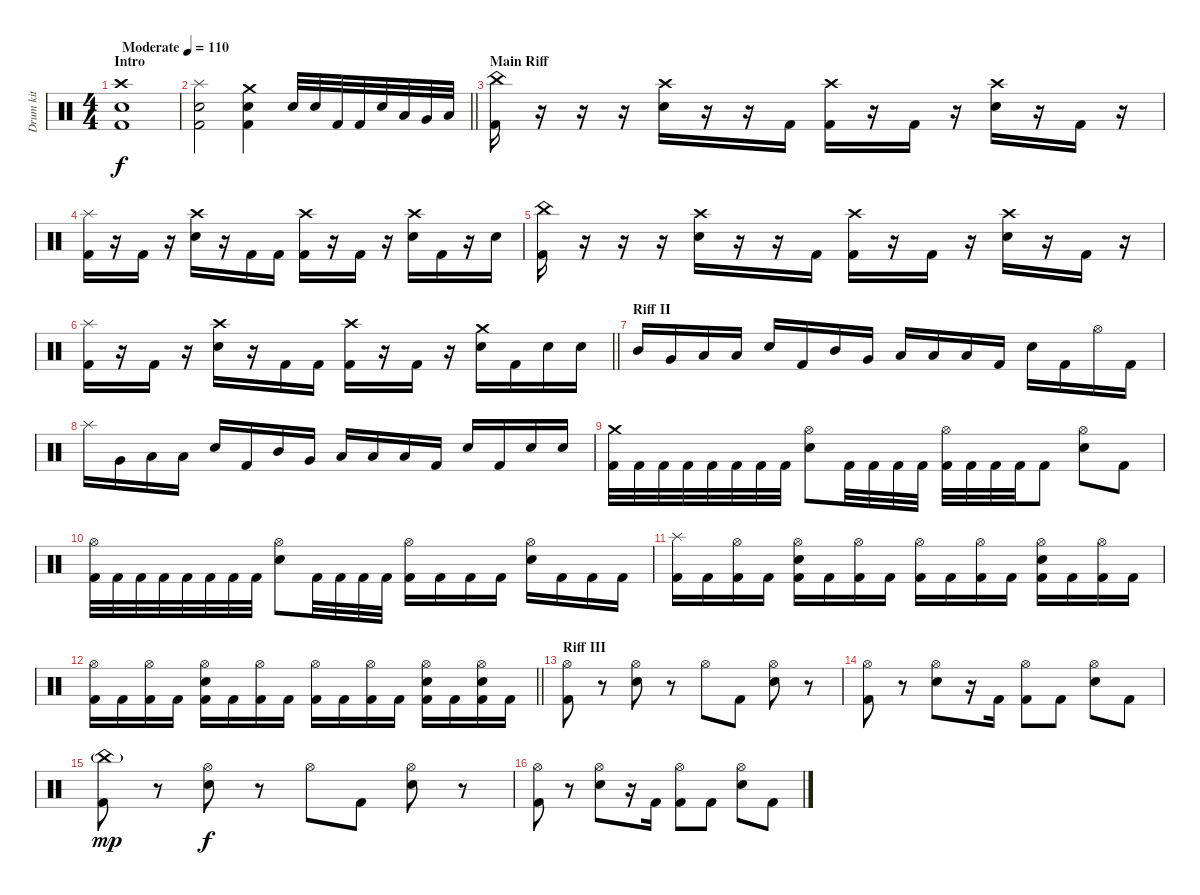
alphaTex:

\track ("Drum kit" "Drum kit") {instrument percussion}
\staff {score}
\articulation defaults
\ts (4 4)
\section ("" "Intro")
\tempo (110 "Moderate")
\clef neutral
\ks c
("Crash high (hit)" "Electric Snare (hit)" "Kick (hit) 2").1{dy f} |
\barLineRight lightlight
("Splash (hit)" "Electric Snare (hit)" "Kick (hit) 2").2 ("Crash medium (hit)" "Electric Snare (hit)" "Kick (hit) 2").4 "Electric Snare (hit)".32 "Electric Snare (hit)".32 "Kick (hit) 2".32 "Kick (hit) 2".32 "Electric Snare (hit)".32 "Low Tom (hit)".32 "Very Low Tom (hit)".32 "Low Floor Tom (hit)".32 |
\section ("" "Main Riff")
("China (hit)" "Kick (hit) 2").16 r.16 r.16 r.16 ("Crash high (hit)" "Electric Snare (hit)").16 r.16 r.16 "Kick (hit) 2".16 ("Crash high (hit)" "Kick (hit) 2").16 r.16 "Kick (hit) 2".16 r.16 ("Crash high (hit)" "Electric Snare (hit)").16 r.16 "Kick (hit) 2".16 r.16 |
("Splash (hit)" "Kick (hit) 2").16 r.16 "Kick (hit) 2".16 r.16 ("Crash high (hit)" "Electric Snare (hit)").16 r.16 "Kick (hit) 2".16 "Kick (hit) 2".16 ("Crash high (hit)" "Kick (hit) 2").16 r.16 "Kick (hit) 2".16 r.16 ("Crash high (hit)" "Electric Snare (hit)").16 "Kick (hit) 2".16 r.16 "Electric Snare (hit)".16 |
("China (hit)" "Kick (hit) 2").16 r.16 r.16 r.16 ("Crash high (hit)" "Electric Snare (hit)").16 r.16 r.16 "Kick (hit) 2".16 ("Crash high (hit)" "Kick (hit) 2").16 r.16 "Kick (hit) 2".16 r.16 ("Crash high (hit)" "Electric Snare (hit)").16 r.16 "Kick (hit) 2".16 r.16 |
\barLineRight lightlight
("Splash (hit)" "Kick (hit) 2").16 r.16 "Kick (hit) 2".16 r.16 ("Crash high (hit)" "Electric Snare (hit)").16 r.16 "Kick (hit) 2".16 "Kick (hit) 2".16 ("Crash high (hit)" "Kick (hit) 2").16 r.16 "Kick (hit) 2".16 r.16 ("Crash medium (hit)" "Electric Snare (hit)").16 "Kick (hit) 2".16 "Electric Snare (hit)".16 "Electric Snare (hit)".16 |
\section ("" "Riff II")
"Mid Tom (hit)".16 "Very Low Tom (hit)".16 "Low Tom (hit)".16 "Low Floor Tom (hit)".16 "Electric Snare (hit)".16 "Kick (hit) 2".16 "Mid Tom (hit)".16 "Very Low Tom (hit)".16 "Low Tom (hit)".16 "Low Floor Tom (hit)".16 "Low Tom (hit)".16 "Kick (hit) 2".16 "Electric Snare (hit)".16 "Kick (hit) 2".16 "Hi-Hat (open)".16 "Kick (hit) 2".16 |
"Splash (hit)".16 "Very Low Tom (hit)".16 "Low Tom (hit)".16 "Low Floor Tom (hit)".16 "Electric Snare (hit)".16 "Kick (hit) 2".16 "Mid Tom (hit)".16 "Very Low Tom (hit)".16 "Low Tom (hit)".16 "Low Floor Tom (hit)".16 "Low Tom (hit)".16 "Kick (hit) 2".16 "Electric Snare (hit)".16 "Kick (hit) 2".16 "Electric Snare (hit)".16 "Electric Snare (hit)".16 |
("Crash medium (hit)" "Kick (hit) 2").32 "Kick (hit) 2".32 "Kick (hit) 2".32 "Kick (hit) 2".32 "Kick (hit) 2".32 "Kick (hit) 2".32 "Kick (hit) 2".32 "Kick (hit) 2".32 ("Hi-Hat (open)" "Electric Snare (hit)").8 "Kick (hit) 2".32 "Kick (hit) 2".32 "Kick (hit) 2".32 "Kick (hit) 2".32 ("Hi-Hat (open)" "Kick (hit) 2").32 "Kick (hit) 2".32 "Kick (hit) 2".32 "Kick (hit) 2".32 "Kick (hit) 2".8 ("Hi-Hat (open)" "Electric Snare (hit)").8 "Kick (hit) 2".8 |
("Hi-Hat (open)" "Kick (hit) 2").32 "Kick (hit) 2".32 "Kick (hit) 2".32 "Kick (hit) 2".32 "Kick (hit) 2".32 "Kick (hit) 2".32 "Kick (hit) 2".32 "Kick (hit) 2".32 ("Hi-Hat (open)" "Electric Snare (hit)").8 "Kick (hit) 2".32 "Kick (hit) 2".32 "Kick (hit) 2".32 "Kick (hit) 2".32 ("Hi-Hat (open)" "Kick (hit) 2").16 "Kick (hit) 2".16 "Kick (hit) 2".16 "Kick (hit) 2".16 ("Hi-Hat (open)" "Electric Snare (hit)").16 "Kick (hit) 2".16 "Kick (hit) 2".16 "Kick (hit) 2".16 |
("Splash (hit)" "Kick (hit) 2").16 "Kick (hit) 2".16 ("Hi-Hat (open)" "Kick (hit) 2").16 "Kick (hit) 2".16 ("Hi-Hat (open)" "Electric Snare (hit)" "Kick (hit) 2").16 "Kick (hit) 2".16 ("Hi-Hat (open)" "Kick (hit) 2").16 "Kick (hit) 2".16 ("Hi-Hat (open)" "Kick (hit) 2").16 "Kick (hit) 2".16 ("Hi-Hat (open)" "Kick (hit) 2").16 "Kick (hit) 2".16 ("Hi-Hat (open)" "Electric Snare (hit)" "Kick (hit) 2").16 "Kick (hit) 2".16 ("Hi-Hat (open)" "Kick (hit) 2").16 "Kick (hit) 2".16 |
\barLineRight lightlight
("Hi-Hat (open)" "Kick (hit) 2").16 "Kick (hit) 2".16 ("Hi-Hat (open)" "Kick (hit) 2").16 "Kick (hit) 2".16 ("Hi-Hat (open)" "Electric Snare (hit)" "Kick (hit) 2").16 "Kick (hit) 2".16 ("Hi-Hat (open)" "Kick (hit) 2").16 "Kick (hit) 2".16 ("Hi-Hat (open)" "Kick (hit) 2").16 "Kick (hit) 2".16 ("Hi-Hat (open)" "Kick (hit) 2").16 "Kick (hit) 2".16 ("Hi-Hat (open)" "Electric Snare (hit)" "Kick (hit) 2").16 "Kick (hit) 2".16 ("Hi-Hat (open)" "Electric Snare (hit)" "Kick (hit) 2").16 "Kick (hit) 2".16 |
\section ("" "Riff III")
("Hi-Hat (open)" "Kick (hit) 2").8 r.8 ("Hi-Hat (open)" "Electric Snare (hit)").8 r.8 "Hi-Hat (open)".8 "Kick (hit) 2".8 ("Hi-Hat (open)" "Electric Snare (hit)").8 r.8 |
("Hi-Hat (open)" "Kick (hit) 2").8 r.8 ("Hi-Hat (open)" "Electric Snare (hit)").8 r.16 "Kick (hit) 2".16 ("Hi-Hat (open)" "Kick (hit) 2").8 "Kick (hit) 2".8 ("Hi-Hat (open)" "Electric Snare (hit)").8 "Kick (hit) 2".8 |
("China (hit)"{g} "Kick (hit) 2").8{dy mp} r.8 ("Hi-Hat (open)" "Electric Snare (hit)").8{dy f} r.8 "Hi-Hat (open)".8 "Kick (hit) 2".8 ("Hi-Hat (open)" "Electric Snare (hit)").8 r.8 |
("Hi-Hat (open)" "Kick (hit) 2").8 r.8 ("Hi-Hat (open)" "Electric Snare (hit)").8 r.16 "Kick (hit) 2".16 ("Hi-Hat (open)" "Kick (hit) 2").8 "Kick (hit) 2".8 ("Hi-Hat (open)" "Electric Snare (hit)").8 "Kick (hit) 2".8
